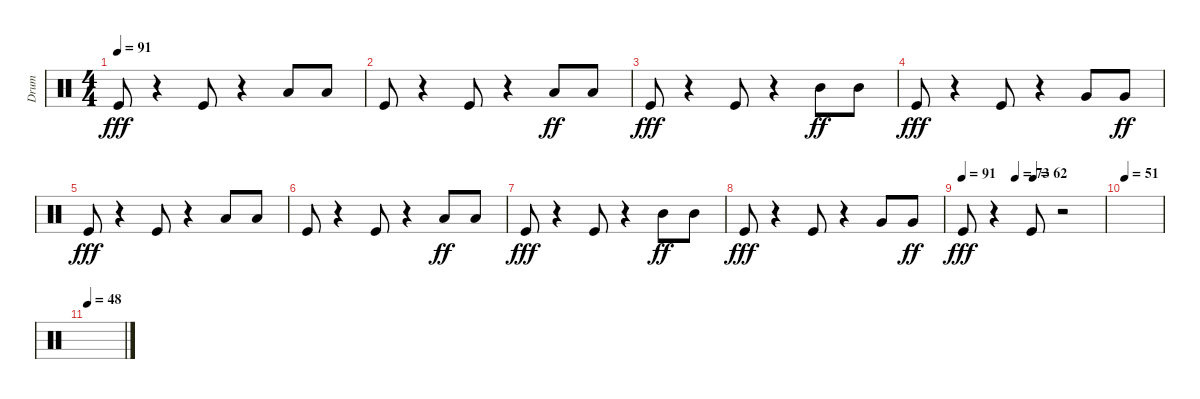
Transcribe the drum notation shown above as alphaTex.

\track ("Drum" "Drum") {instrument percussion}
\staff {score}
\articulation defaults
\ts (4 4)
\tempo 91
\clef neutral
\ks c "Kick (hit)".8{dy fff}
r.4 "Kick (hit)".8 r.4 "Low Floor Tom (hit)".8 "Low Floor Tom (hit)".8 |
"Kick (hit)".8 r.4 "Kick (hit)".8 r.4 "Low Tom (hit)".8{dy ff} "Low Tom (hit)".8 |
"Kick (hit)".8{dy fff} r.4 "Kick (hit)".8 r.4 "Mid Tom (hit)".8{dy ff} "Mid Tom (hit)".8 |
"Kick (hit)".8{dy fff} r.4 "Kick (hit)".8 r.4 "Very Low Tom (hit)".8 "Very Low Tom (hit)".8{dy ff} |
"Kick (hit)".8{dy fff} r.4 "Kick (hit)".8 r.4 "Low Floor Tom (hit)".8 "Low Floor Tom (hit)".8 |
"Kick (hit)".8 r.4 "Kick (hit)".8 r.4 "Low Tom (hit)".8{dy ff} "Low Tom (hit)".8 |
"Kick (hit)".8{dy fff} r.4 "Kick (hit)".8 r.4 "Mid Tom (hit)".8{dy ff} "Mid Tom (hit)".8 |
"Kick (hit)".8{dy fff} r.4 "Kick (hit)".8 r.4 "Very Low Tom (hit)".8 "Very Low Tom (hit)".8{dy ff} |
\tempo 91
\tempo (73 0.375)
\tempo (62 0.5)
"Kick (hit)".8{dy fff} r.4 "Kick (hit)".8 r.2 |
\tempo 51
|
\tempo 48
